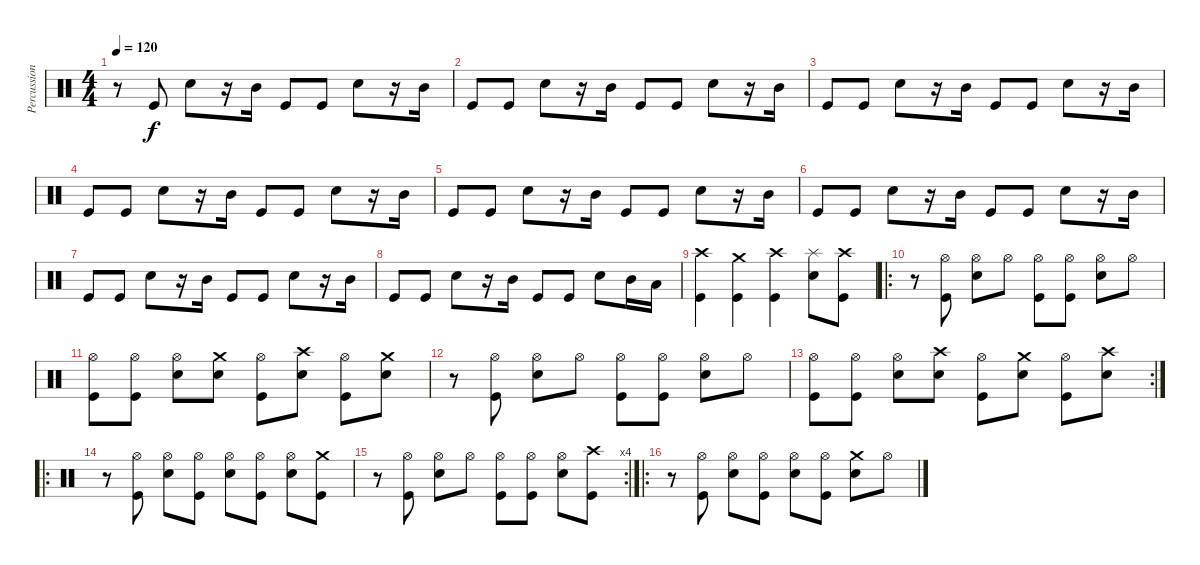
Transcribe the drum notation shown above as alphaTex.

\track ("Percussion" "Percussion") {instrument percussion}
\staff {score}
\articulation defaults
\ts (4 4)
\tempo 120
\clef neutral
\ks c
r.8{dy f} "Kick (hit)".8 "Snare (hit) 2".8 r.16 "Mid Tom (hit)".16 "Kick (hit)".8 "Kick (hit)".8 "Snare (hit) 2".8 r.16 "Mid Tom (hit)".16 |
"Kick (hit)".8 "Kick (hit)".8 "Snare (hit) 2".8 r.16 "Mid Tom (hit)".16 "Kick (hit)".8 "Kick (hit)".8 "Snare (hit) 2".8 r.16 "Mid Tom (hit)".16 |
"Kick (hit)".8 "Kick (hit)".8 "Snare (hit) 2".8 r.16 "Mid Tom (hit)".16 "Kick (hit)".8 "Kick (hit)".8 "Snare (hit) 2".8 r.16 "Mid Tom (hit)".16 |
"Kick (hit)".8 "Kick (hit)".8 "Snare (hit) 2".8 r.16 "Mid Tom (hit)".16 "Kick (hit)".8 "Kick (hit)".8 "Snare (hit) 2".8 r.16 "Mid Tom (hit)".16 |
"Kick (hit)".8 "Kick (hit)".8 "Snare (hit) 2".8 r.16 "Mid Tom (hit)".16 "Kick (hit)".8 "Kick (hit)".8 "Snare (hit) 2".8 r.16 "Mid Tom (hit)".16 |
"Kick (hit)".8 "Kick (hit)".8 "Snare (hit) 2".8 r.16 "Mid Tom (hit)".16 "Kick (hit)".8 "Kick (hit)".8 "Snare (hit) 2".8 r.16 "Mid Tom (hit)".16 |
"Kick (hit)".8 "Kick (hit)".8 "Snare (hit) 2".8 r.16 "Mid Tom (hit)".16 "Kick (hit)".8 "Kick (hit)".8 "Snare (hit) 2".8 r.16 "Mid Tom (hit)".16 |
"Kick (hit)".8 "Kick (hit)".8 "Snare (hit) 2".8 r.16 "Mid Tom (hit)".16 "Kick (hit)".8 "Kick (hit)".8 "Snare (hit) 2".8 "Mid Tom (hit)".16 "Low Tom (hit)".16 |
("Crash high (hit)" "Kick (hit)").4 ("Crash medium (hit)" "Kick (hit)").4 ("Crash high (hit)" "Kick (hit)").4 ("Splash (hit)" "Snare (hit) 2").8 ("Crash high (hit)" "Kick (hit)").8 |
\ro
r.8 ("Hi-Hat (open)" "Kick (hit)").8 ("Hi-Hat (open)" "Snare (hit) 2").8 "Hi-Hat (open)".8 ("Hi-Hat (open)" "Kick (hit)").8 ("Hi-Hat (open)" "Kick (hit)").8 ("Hi-Hat (open)" "Snare (hit) 2").8 "Hi-Hat (open)".8 |
("Hi-Hat (open)" "Kick (hit)").8 ("Hi-Hat (open)" "Kick (hit)").8 ("Hi-Hat (open)" "Snare (hit) 2").8 ("Crash medium (hit)" "Snare (hit) 2").8 ("Hi-Hat (open)" "Kick (hit)").8 ("Crash high (hit)" "Snare (hit) 2").8 ("Hi-Hat (open)" "Kick (hit)").8 ("Crash medium (hit)" "Snare (hit) 2").8 |
r.8 ("Hi-Hat (open)" "Kick (hit)").8 ("Hi-Hat (open)" "Snare (hit) 2").8 "Hi-Hat (open)".8 ("Hi-Hat (open)" "Kick (hit)").8 ("Hi-Hat (open)" "Kick (hit)").8 ("Hi-Hat (open)" "Snare (hit) 2").8 "Hi-Hat (open)".8 |
\rc 2
("Hi-Hat (open)" "Kick (hit)").8 ("Hi-Hat (open)" "Kick (hit)").8 ("Hi-Hat (open)" "Snare (hit) 2").8 ("Crash high (hit)" "Snare (hit) 2").8 ("Hi-Hat (open)" "Kick (hit)").8 ("Crash medium (hit)" "Snare (hit) 2").8 ("Hi-Hat (open)" "Kick (hit)").8 ("Crash high (hit)" "Snare (hit) 2").8 |
\ro
r.8 ("Hi-Hat (open)" "Kick (hit)").8 ("Hi-Hat (open)" "Snare (hit) 2").8 ("Hi-Hat (open)" "Kick (hit)").8 ("Hi-Hat (open)" "Snare (hit) 2").8 ("Hi-Hat (open)" "Kick (hit)").8 ("Hi-Hat (open)" "Snare (hit) 2").8 ("Crash medium (hit)" "Kick (hit)").8 |
\rc 4
r.8 ("Hi-Hat (open)" "Kick (hit)").8 ("Hi-Hat (open)" "Snare (hit) 2").8 "Hi-Hat (open)".8 ("Hi-Hat (open)" "Kick (hit)").8 ("Hi-Hat (open)" "Kick (hit)").8 ("Hi-Hat (open)" "Snare (hit) 2").8 ("Crash high (hit)" "Kick (hit)").8 |
\ro
r.8 ("Hi-Hat (open)" "Kick (hit)").8 ("Hi-Hat (open)" "Snare (hit) 2").8 ("Hi-Hat (open)" "Kick (hit)").8 ("Hi-Hat (open)" "Snare (hit) 2").8 ("Hi-Hat (open)" "Kick (hit)").8 ("Crash medium (hit)" "Snare (hit) 2").8 "Hi-Hat (open)".8
